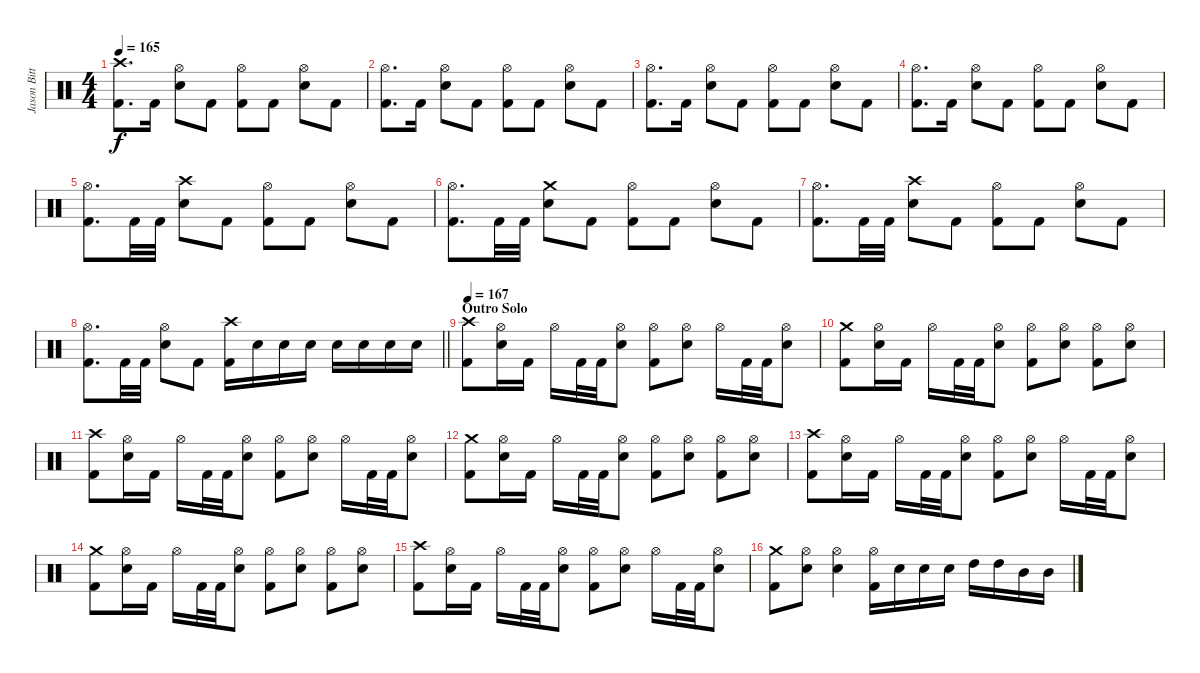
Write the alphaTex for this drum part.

\track ("Jason Bittner" "Jason Bitt") {instrument percussion}
\staff {score}
\articulation defaults
\ts (4 4)
\tempo 165
\clef neutral
\ks c
("Crash high (hit)" "Kick (hit) 2").8{d dy f} "Kick (hit) 2".16 ("Hi-Hat (open)" "Electric Snare (hit)").8 "Kick (hit) 2".8 ("Hi-Hat (open)" "Kick (hit) 2").8 "Kick (hit) 2".8 ("Hi-Hat (open)" "Electric Snare (hit)").8 "Kick (hit) 2".8 |
("Hi-Hat (open)" "Kick (hit) 2").8{d} "Kick (hit) 2".16 ("Hi-Hat (open)" "Electric Snare (hit)").8 "Kick (hit) 2".8 ("Hi-Hat (open)" "Kick (hit) 2").8 "Kick (hit) 2".8 ("Hi-Hat (open)" "Electric Snare (hit)").8 "Kick (hit) 2".8 |
("Hi-Hat (open)" "Kick (hit) 2").8{d} "Kick (hit) 2".16 ("Hi-Hat (open)" "Electric Snare (hit)").8 "Kick (hit) 2".8 ("Hi-Hat (open)" "Kick (hit) 2").8 "Kick (hit) 2".8 ("Hi-Hat (open)" "Electric Snare (hit)").8 "Kick (hit) 2".8 |
("Hi-Hat (open)" "Kick (hit) 2").8{d} "Kick (hit) 2".16 ("Hi-Hat (open)" "Electric Snare (hit)").8 "Kick (hit) 2".8 ("Hi-Hat (open)" "Kick (hit) 2").8 "Kick (hit) 2".8 ("Hi-Hat (open)" "Electric Snare (hit)").8 "Kick (hit) 2".8 |
("Hi-Hat (open)" "Kick (hit) 2").8{d} "Kick (hit) 2".32 "Kick (hit) 2".32 ("Crash high (hit)" "Electric Snare (hit)").8 "Kick (hit) 2".8 ("Hi-Hat (open)" "Kick (hit) 2").8 "Kick (hit) 2".8 ("Hi-Hat (open)" "Electric Snare (hit)").8 "Kick (hit) 2".8 |
("Hi-Hat (open)" "Kick (hit) 2").8{d} "Kick (hit) 2".32 "Kick (hit) 2".32 ("Crash medium (hit)" "Electric Snare (hit)").8 "Kick (hit) 2".8 ("Hi-Hat (open)" "Kick (hit) 2").8 "Kick (hit) 2".8 ("Hi-Hat (open)" "Electric Snare (hit)").8 "Kick (hit) 2".8 |
("Hi-Hat (open)" "Kick (hit) 2").8{d} "Kick (hit) 2".32 "Kick (hit) 2".32 ("Crash high (hit)" "Electric Snare (hit)").8 "Kick (hit) 2".8 ("Hi-Hat (open)" "Kick (hit) 2").8 "Kick (hit) 2".8 ("Hi-Hat (open)" "Electric Snare (hit)").8 "Kick (hit) 2".8 |
\barLineRight lightlight
("Hi-Hat (open)" "Kick (hit) 2").8{d} "Kick (hit) 2".32 "Kick (hit) 2".32 ("Hi-Hat (open)" "Electric Snare (hit)").8 "Kick (hit) 2".8 ("Crash high (hit)" "Kick (hit) 2").16 "Electric Snare (hit)".16 "Electric Snare (hit)".16 "Electric Snare (hit)".16 "Electric Snare (hit)".16 "Electric Snare (hit)".16 "Electric Snare (hit)".16 "Electric Snare (hit)".16 |
\section ("" "Outro Solo")
\tempo 167
("Crash high (hit)" "Kick (hit) 2").8 ("Hi-Hat (open)" "Electric Snare (hit)").16 "Kick (hit) 2".16 "Hi-Hat (open)".16 "Kick (hit) 2".32 "Kick (hit) 2".32 ("Hi-Hat (open)" "Electric Snare (hit)").8 ("Hi-Hat (open)" "Kick (hit) 2").8 ("Hi-Hat (open)" "Electric Snare (hit)").8 "Hi-Hat (open)".16 "Kick (hit) 2".32 "Kick (hit) 2".32 ("Hi-Hat (open)" "Electric Snare (hit)").8 |
("Crash medium (hit)" "Kick (hit) 2").8 ("Hi-Hat (open)" "Electric Snare (hit)").16 "Kick (hit) 2".16 "Hi-Hat (open)".16 "Kick (hit) 2".32 "Kick (hit) 2".32 ("Hi-Hat (open)" "Electric Snare (hit)").8 ("Hi-Hat (open)" "Kick (hit) 2").8 ("Hi-Hat (open)" "Electric Snare (hit)").8 ("Hi-Hat (open)" "Kick (hit) 2").8 ("Hi-Hat (open)" "Electric Snare (hit)").8 |
("Crash high (hit)" "Kick (hit) 2").8 ("Hi-Hat (open)" "Electric Snare (hit)").16 "Kick (hit) 2".16 "Hi-Hat (open)".16 "Kick (hit) 2".32 "Kick (hit) 2".32 ("Hi-Hat (open)" "Electric Snare (hit)").8 ("Hi-Hat (open)" "Kick (hit) 2").8 ("Hi-Hat (open)" "Electric Snare (hit)").8 "Hi-Hat (open)".16 "Kick (hit) 2".32 "Kick (hit) 2".32 ("Hi-Hat (open)" "Electric Snare (hit)").8 |
("Crash medium (hit)" "Kick (hit) 2").8 ("Hi-Hat (open)" "Electric Snare (hit)").16 "Kick (hit) 2".16 "Hi-Hat (open)".16 "Kick (hit) 2".32 "Kick (hit) 2".32 ("Hi-Hat (open)" "Electric Snare (hit)").8 ("Hi-Hat (open)" "Kick (hit) 2").8 ("Hi-Hat (open)" "Electric Snare (hit)").8 ("Hi-Hat (open)" "Kick (hit) 2").8 ("Hi-Hat (open)" "Electric Snare (hit)").8 |
("Crash high (hit)" "Kick (hit) 2").8 ("Hi-Hat (open)" "Electric Snare (hit)").16 "Kick (hit) 2".16 "Hi-Hat (open)".16 "Kick (hit) 2".32 "Kick (hit) 2".32 ("Hi-Hat (open)" "Electric Snare (hit)").8 ("Hi-Hat (open)" "Kick (hit) 2").8 ("Hi-Hat (open)" "Electric Snare (hit)").8 "Hi-Hat (open)".16 "Kick (hit) 2".32 "Kick (hit) 2".32 ("Hi-Hat (open)" "Electric Snare (hit)").8 |
("Crash medium (hit)" "Kick (hit) 2").8 ("Hi-Hat (open)" "Electric Snare (hit)").16 "Kick (hit) 2".16 "Hi-Hat (open)".16 "Kick (hit) 2".32 "Kick (hit) 2".32 ("Hi-Hat (open)" "Electric Snare (hit)").8 ("Hi-Hat (open)" "Kick (hit) 2").8 ("Hi-Hat (open)" "Electric Snare (hit)").8 ("Hi-Hat (open)" "Kick (hit) 2").8 ("Hi-Hat (open)" "Electric Snare (hit)").8 |
("Crash high (hit)" "Kick (hit) 2").8 ("Hi-Hat (open)" "Electric Snare (hit)").16 "Kick (hit) 2".16 "Hi-Hat (open)".16 "Kick (hit) 2".32 "Kick (hit) 2".32 ("Hi-Hat (open)" "Electric Snare (hit)").8 ("Hi-Hat (open)" "Kick (hit) 2").8 ("Hi-Hat (open)" "Electric Snare (hit)").8 "Hi-Hat (open)".16 "Kick (hit) 2".32 "Kick (hit) 2".32 ("Hi-Hat (open)" "Electric Snare (hit)").8 |
("Crash medium (hit)" "Kick (hit) 2").8 ("Hi-Hat (open)" "Electric Snare (hit)").8 ("Hi-Hat (open)" "Electric Snare (hit)").4 ("Hi-Hat (open)" "Kick (hit) 2").16 "Electric Snare (hit)".16 "Electric Snare (hit)".16 "Electric Snare (hit)".16 "High Tom (hit)".16 "High Tom (hit)".16 "Mid Tom (hit)".16 "Mid Tom (hit)".16
